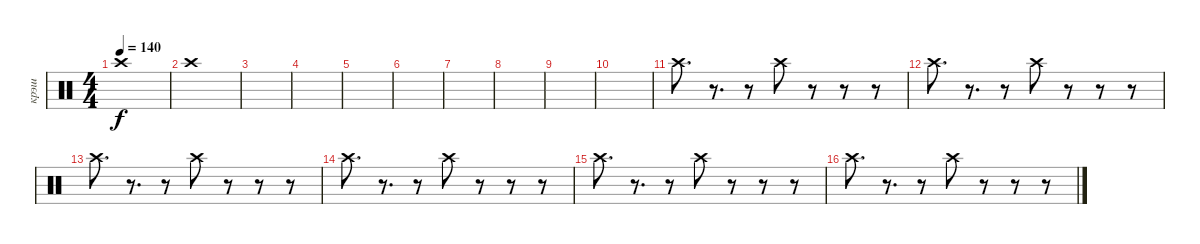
\track ("крэш" "крэш") {mute instrument percussion}
\staff {score}
\articulation defaults
\ts (4 4)
\tempo 140
\clef neutral
\ks c "Crash high (hit)".1{dy f}
|
"Crash high (hit)".1 |
|
|
|
|
|
|
|
|
"Crash high (hit)".8{d} r.8{d} r.8 "Crash high (hit)".8 r.8 r.8 r.8 |
"Crash high (hit)".8{d} r.8{d} r.8 "Crash high (hit)".8 r.8 r.8 r.8 |
"Crash high (hit)".8{d} r.8{d} r.8 "Crash high (hit)".8 r.8 r.8 r.8 |
"Crash high (hit)".8{d} r.8{d} r.8 "Crash high (hit)".8 r.8 r.8 r.8 |
"Crash high (hit)".8{d} r.8{d} r.8 "Crash high (hit)".8 r.8 r.8 r.8 |
"Crash high (hit)".8{d} r.8{d} r.8 "Crash high (hit)".8 r.8 r.8 r.8
